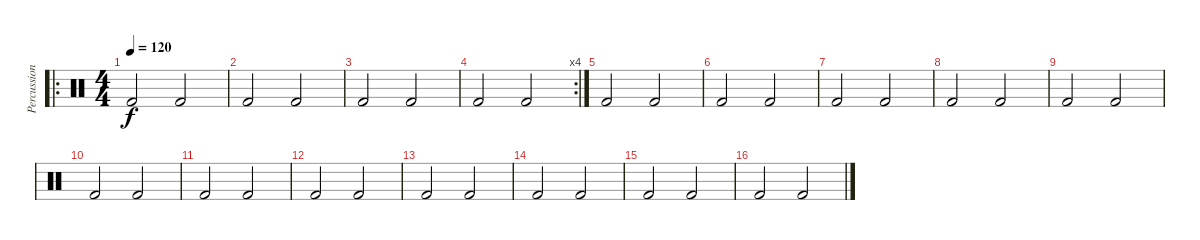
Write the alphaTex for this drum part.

\track ("Percussion" "Percussion") {mute instrument percussion}
\staff {score}
\articulation defaults
\ro
\ts (4 4)
\tempo 120
\clef neutral
\ks c "Kick (hit) 2".2{dy f} "Kick (hit) 2".2
|
"Kick (hit) 2".2 "Kick (hit) 2".2 |
"Kick (hit) 2".2 "Kick (hit) 2".2 |
\rc 4 "Kick (hit) 2".2 "Kick (hit) 2".2
|
"Kick (hit) 2".2 "Kick (hit) 2".2 |
"Kick (hit) 2".2 "Kick (hit) 2".2 |
"Kick (hit) 2".2 "Kick (hit) 2".2 |
"Kick (hit) 2".2 "Kick (hit) 2".2 |
"Kick (hit) 2".2 "Kick (hit) 2".2 |
"Kick (hit) 2".2 "Kick (hit) 2".2 |
"Kick (hit) 2".2 "Kick (hit) 2".2 |
"Kick (hit) 2".2 "Kick (hit) 2".2 |
"Kick (hit) 2".2 "Kick (hit) 2".2 |
"Kick (hit) 2".2 "Kick (hit) 2".2 |
"Kick (hit) 2".2 "Kick (hit) 2".2 |
"Kick (hit) 2".2 "Kick (hit) 2".2
